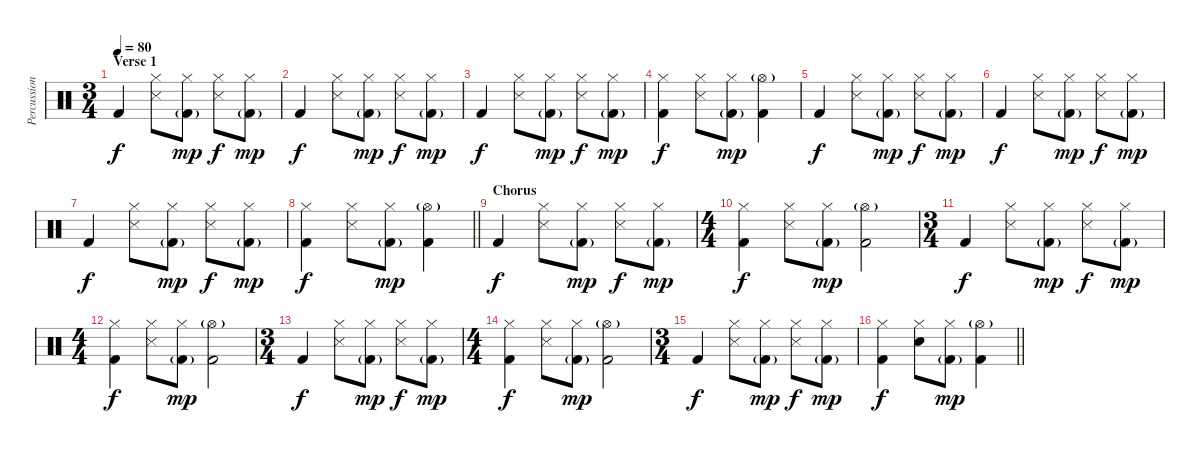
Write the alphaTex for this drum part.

\track ("Percussion" "Percussion") {instrument percussion}
\staff {score}
\articulation defaults
\ts (3 4)
\section ("" "Verse 1")
\tempo 80
\clef neutral
\ks c "Kick (hit) 2".4{dy f}
("Hi-Hat (closed)" "Snare (side stick) 3").8 ("Hi-Hat (closed)" "Kick (hit) 2"{g}).8{dy mp} ("Hi-Hat (closed)" "Snare (side stick) 3").8{dy f} ("Hi-Hat (closed)" "Kick (hit) 2"{g}).8{dy mp} |
"Kick (hit) 2".4{dy f} ("Hi-Hat (closed)" "Snare (side stick) 3").8 ("Hi-Hat (closed)" "Kick (hit) 2"{g}).8{dy mp} ("Hi-Hat (closed)" "Snare (side stick) 3").8{dy f} ("Hi-Hat (closed)" "Kick (hit) 2"{g}).8{dy mp} |
"Kick (hit) 2".4{dy f} ("Hi-Hat (closed)" "Snare (side stick) 3").8 ("Hi-Hat (closed)" "Kick (hit) 2"{g}).8{dy mp} ("Hi-Hat (closed)" "Snare (side stick) 3").8{dy f} ("Hi-Hat (closed)" "Kick (hit) 2"{g}).8{dy mp} |
("Hi-Hat (closed)" "Kick (hit) 2").4{dy f} ("Hi-Hat (closed)" "Snare (side stick) 3").8 ("Hi-Hat (closed)" "Kick (hit) 2"{g}).8{dy mp} ("Hi-Hat (open)"{g} "Kick (hit) 2").4 |
"Kick (hit) 2".4{dy f} ("Hi-Hat (closed)" "Snare (side stick) 3").8 ("Hi-Hat (closed)" "Kick (hit) 2"{g}).8{dy mp} ("Hi-Hat (closed)" "Snare (side stick) 3").8{dy f} ("Hi-Hat (closed)" "Kick (hit) 2"{g}).8{dy mp} |
"Kick (hit) 2".4{dy f} ("Hi-Hat (closed)" "Snare (side stick) 3").8 ("Hi-Hat (closed)" "Kick (hit) 2"{g}).8{dy mp} ("Hi-Hat (closed)" "Snare (side stick) 3").8{dy f} ("Hi-Hat (closed)" "Kick (hit) 2"{g}).8{dy mp} |
"Kick (hit) 2".4{dy f} ("Hi-Hat (closed)" "Snare (side stick) 3").8 ("Hi-Hat (closed)" "Kick (hit) 2"{g}).8{dy mp} ("Hi-Hat (closed)" "Snare (side stick) 3").8{dy f} ("Hi-Hat (closed)" "Kick (hit) 2"{g}).8{dy mp} |
\barLineRight lightlight
("Hi-Hat (closed)" "Kick (hit) 2").4{dy f} ("Hi-Hat (closed)" "Snare (side stick) 3").8 ("Hi-Hat (closed)" "Kick (hit) 2"{g}).8{dy mp} ("Hi-Hat (open)"{g} "Kick (hit) 2").4 |
\section ("" "Chorus")
"Kick (hit) 2".4{dy f} ("Hi-Hat (closed)" "Snare (side stick) 3").8 ("Hi-Hat (closed)" "Kick (hit) 2"{g}).8{dy mp} ("Hi-Hat (closed)" "Snare (side stick) 3").8{dy f} ("Hi-Hat (closed)" "Kick (hit) 2"{g}).8{dy mp} |
\ts (4 4)
("Hi-Hat (closed)" "Kick (hit) 2").4{dy f} ("Hi-Hat (closed)" "Snare (side stick) 3").8 ("Hi-Hat (closed)" "Kick (hit) 2"{g}).8{dy mp} ("Hi-Hat (open)"{g} "Kick (hit) 2").2 |
\ts (3 4)
"Kick (hit) 2".4{dy f} ("Hi-Hat (closed)" "Snare (side stick) 3").8 ("Hi-Hat (closed)" "Kick (hit) 2"{g}).8{dy mp} ("Hi-Hat (closed)" "Snare (side stick) 3").8{dy f} ("Hi-Hat (closed)" "Kick (hit) 2"{g}).8{dy mp} |
\ts (4 4)
("Hi-Hat (closed)" "Kick (hit) 2").4{dy f} ("Hi-Hat (closed)" "Snare (side stick) 3").8 ("Hi-Hat (closed)" "Kick (hit) 2"{g}).8{dy mp} ("Hi-Hat (open)"{g} "Kick (hit) 2").2 |
\ts (3 4)
"Kick (hit) 2".4{dy f} ("Hi-Hat (closed)" "Snare (side stick) 3").8 ("Hi-Hat (closed)" "Kick (hit) 2"{g}).8{dy mp} ("Hi-Hat (closed)" "Snare (side stick) 3").8{dy f} ("Hi-Hat (closed)" "Kick (hit) 2"{g}).8{dy mp} |
\ts (4 4)
("Hi-Hat (closed)" "Kick (hit) 2").4{dy f} ("Hi-Hat (closed)" "Snare (side stick) 3").8 ("Hi-Hat (closed)" "Kick (hit) 2"{g}).8{dy mp} ("Hi-Hat (open)"{g} "Kick (hit) 2").2 |
\ts (3 4)
"Kick (hit) 2".4{dy f} ("Hi-Hat (closed)" "Snare (side stick) 3").8 ("Hi-Hat (closed)" "Kick (hit) 2"{g}).8{dy mp} ("Hi-Hat (closed)" "Snare (side stick) 3").8{dy f} ("Hi-Hat (closed)" "Kick (hit) 2"{g}).8{dy mp} |
\barLineRight lightlight
("Hi-Hat (closed)" "Kick (hit) 2").4{dy f} ("Hi-Hat (closed)" "Snare (hit) 2").8 ("Hi-Hat (closed)" "Kick (hit) 2"{g}).8{dy mp} ("Hi-Hat (open)"{g} "Kick (hit) 2").4
